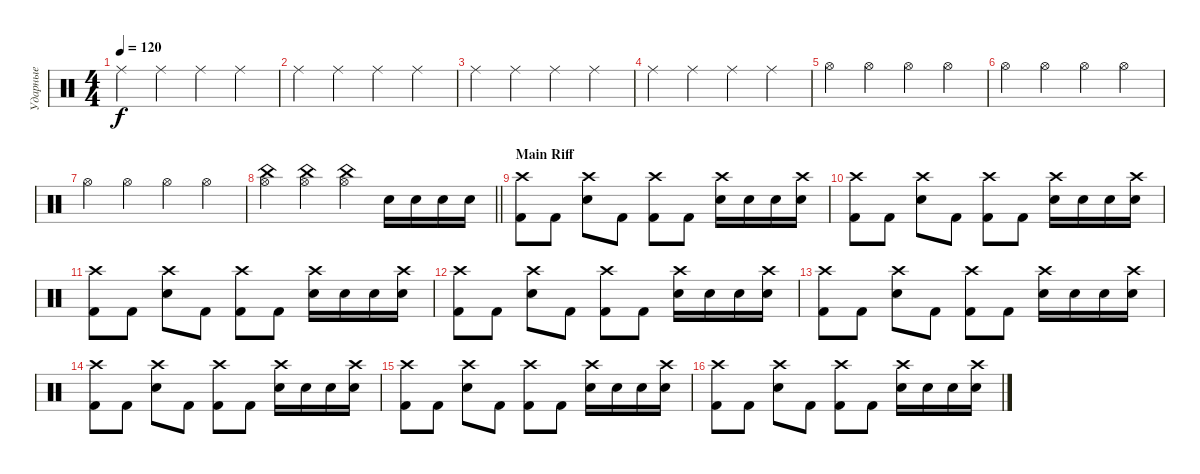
\track ("Ударные" "Ударные") {instrument percussion}
\staff {score}
\articulation defaults
\ts (4 4)
\tempo 120
\clef neutral
\ks c "Ride (middle)".4{dy f} "Ride (middle)".4 "Ride (middle)".4 "Ride (middle)".4
|
"Ride (middle)".4 "Ride (middle)".4 "Ride (middle)".4 "Ride (middle)".4 |
"Ride (middle)".4 "Ride (middle)".4 "Ride (middle)".4 "Ride (middle)".4 |
"Ride (middle)".4 "Ride (middle)".4 "Ride (middle)".4 "Ride (middle)".4 |
"Hi-Hat (open)".4 "Hi-Hat (open)".4 "Hi-Hat (open)".4 "Hi-Hat (open)".4 |
"Hi-Hat (open)".4 "Hi-Hat (open)".4 "Hi-Hat (open)".4 "Hi-Hat (open)".4 |
"Hi-Hat (open)".4 "Hi-Hat (open)".4 "Hi-Hat (open)".4 "Hi-Hat (open)".4 |
\barLineRight lightlight
("Hi-Hat (open)" "China (hit)").4 ("Hi-Hat (open)" "China (hit)").4 ("Hi-Hat (open)" "China (hit)").4 "Electric Snare (hit)".16 "Electric Snare (hit)".16 "Electric Snare (hit)".16 "Electric Snare (hit)".16 |
\section ("" "Main Riff")
("Kick (hit) 2" "Crash high (hit)").8 "Kick (hit) 2".8 ("Electric Snare (hit)" "Crash high (hit)").8 "Kick (hit) 2".8 ("Kick (hit) 2" "Crash high (hit)").8 "Kick (hit) 2".8 ("Electric Snare (hit)" "Crash high (hit)").16 "Electric Snare (hit)".16 "Electric Snare (hit)".16 ("Electric Snare (hit)" "Crash high (hit)").16 |
("Kick (hit) 2" "Crash high (hit)").8 "Kick (hit) 2".8 ("Electric Snare (hit)" "Crash high (hit)").8 "Kick (hit) 2".8 ("Kick (hit) 2" "Crash high (hit)").8 "Kick (hit) 2".8 ("Electric Snare (hit)" "Crash high (hit)").16 "Electric Snare (hit)".16 "Electric Snare (hit)".16 ("Electric Snare (hit)" "Crash high (hit)").16 |
("Kick (hit) 2" "Crash high (hit)").8 "Kick (hit) 2".8 ("Electric Snare (hit)" "Crash high (hit)").8 "Kick (hit) 2".8 ("Kick (hit) 2" "Crash high (hit)").8 "Kick (hit) 2".8 ("Electric Snare (hit)" "Crash high (hit)").16 "Electric Snare (hit)".16 "Electric Snare (hit)".16 ("Electric Snare (hit)" "Crash high (hit)").16 |
("Kick (hit) 2" "Crash high (hit)").8 "Kick (hit) 2".8 ("Electric Snare (hit)" "Crash high (hit)").8 "Kick (hit) 2".8 ("Kick (hit) 2" "Crash high (hit)").8 "Kick (hit) 2".8 ("Electric Snare (hit)" "Crash high (hit)").16 "Electric Snare (hit)".16 "Electric Snare (hit)".16 ("Electric Snare (hit)" "Crash high (hit)").16 |
("Kick (hit) 2" "Crash high (hit)").8 "Kick (hit) 2".8 ("Electric Snare (hit)" "Crash high (hit)").8 "Kick (hit) 2".8 ("Kick (hit) 2" "Crash high (hit)").8 "Kick (hit) 2".8 ("Electric Snare (hit)" "Crash high (hit)").16 "Electric Snare (hit)".16 "Electric Snare (hit)".16 ("Electric Snare (hit)" "Crash high (hit)").16 |
("Kick (hit) 2" "Crash high (hit)").8 "Kick (hit) 2".8 ("Electric Snare (hit)" "Crash high (hit)").8 "Kick (hit) 2".8 ("Kick (hit) 2" "Crash high (hit)").8 "Kick (hit) 2".8 ("Electric Snare (hit)" "Crash high (hit)").16 "Electric Snare (hit)".16 "Electric Snare (hit)".16 ("Electric Snare (hit)" "Crash high (hit)").16 |
("Kick (hit) 2" "Crash high (hit)").8 "Kick (hit) 2".8 ("Electric Snare (hit)" "Crash high (hit)").8 "Kick (hit) 2".8 ("Kick (hit) 2" "Crash high (hit)").8 "Kick (hit) 2".8 ("Electric Snare (hit)" "Crash high (hit)").16 "Electric Snare (hit)".16 "Electric Snare (hit)".16 ("Electric Snare (hit)" "Crash high (hit)").16 |
("Kick (hit) 2" "Crash high (hit)").8 "Kick (hit) 2".8 ("Electric Snare (hit)" "Crash high (hit)").8 "Kick (hit) 2".8 ("Kick (hit) 2" "Crash high (hit)").8 "Kick (hit) 2".8 ("Electric Snare (hit)" "Crash high (hit)").16 "Electric Snare (hit)".16 "Electric Snare (hit)".16 ("Electric Snare (hit)" "Crash high (hit)").16
